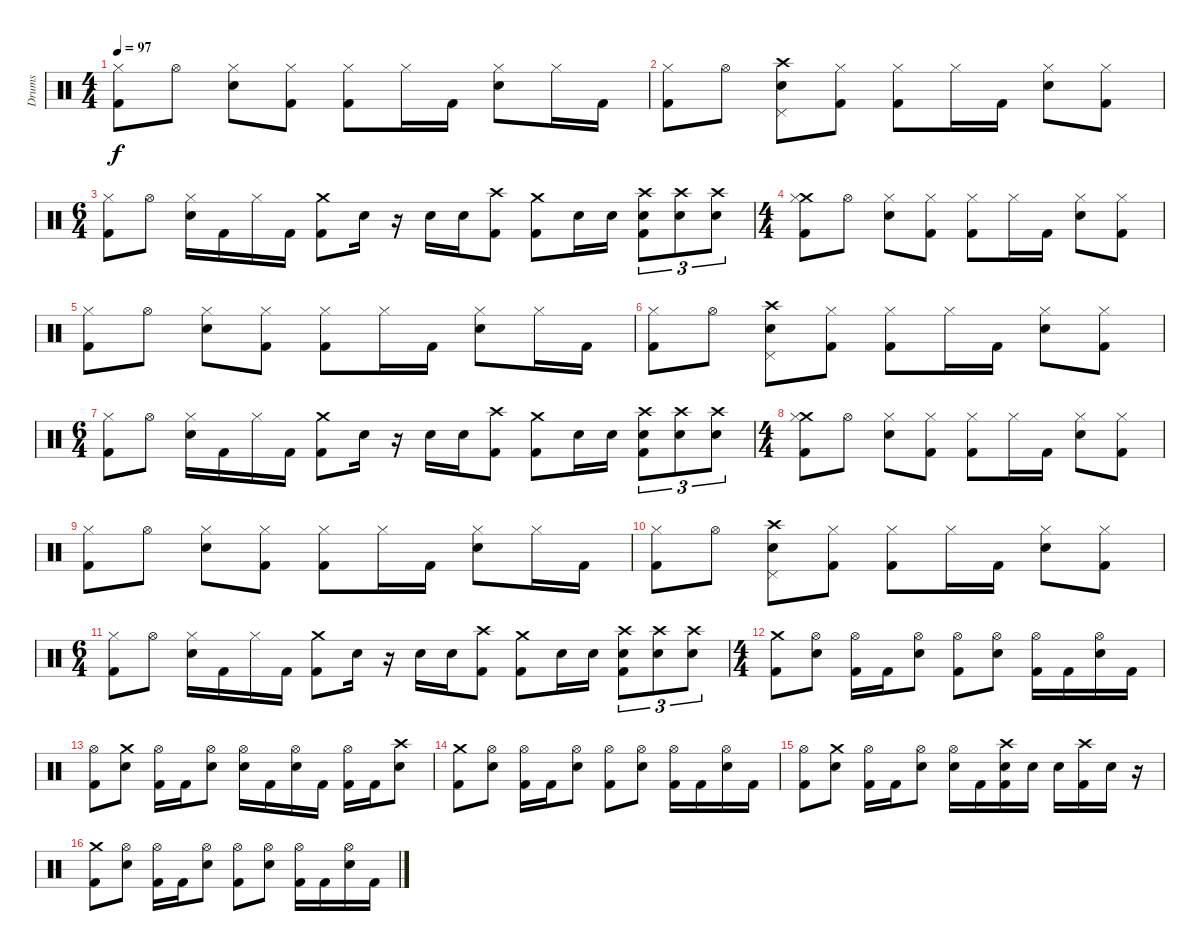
\track ("Drums" "Drums") {instrument percussion}
\staff {score}
\articulation defaults
\ts (4 4)
\tempo 97
\clef neutral
\ks c
("Hi-Hat (closed)" "Kick (hit) 2").8{dy f} "Hi-Hat (open)".8 ("Hi-Hat (closed)" "Snare (hit) 2").8 ("Hi-Hat (closed)" "Kick (hit) 2").8 ("Hi-Hat (closed)" "Kick (hit) 2").8 "Hi-Hat (closed)".16 "Kick (hit) 2".16 ("Hi-Hat (closed)" "Snare (hit) 2").8 "Hi-Hat (closed)".16 "Kick (hit) 2".16 |
("Hi-Hat (closed)" "Kick (hit) 2").8 "Hi-Hat (open)".8 ("Crash high (hit)" "Pedal Hi-Hat (hit)" "Snare (hit) 2").8 ("Hi-Hat (closed)" "Kick (hit) 2").8 ("Hi-Hat (closed)" "Kick (hit) 2").8 "Hi-Hat (closed)".16 "Kick (hit) 2".16 ("Hi-Hat (closed)" "Snare (hit) 2").8 ("Hi-Hat (closed)" "Kick (hit) 2").8 |
\ts (6 4)
("Hi-Hat (closed)" "Kick (hit) 2").8 "Hi-Hat (open)".8 ("Hi-Hat (closed)" "Snare (hit) 2").16 "Kick (hit) 2".16 "Hi-Hat (closed)".16 "Kick (hit) 2".16 ("Crash medium (hit)" "Kick (hit) 2").8 "Snare (hit) 2".16 r.16 "Snare (hit) 2".16 "Snare (hit) 2".16 ("Crash high (hit)" "Kick (hit) 2").8 ("Crash medium (hit)" "Kick (hit) 2").8 "Snare (hit) 2".16 "Snare (hit) 2".16 ("Crash high (hit)" "Snare (hit) 2" "Kick (hit) 2").8{tu (3 2)} ("Crash high (hit)" "Snare (hit) 2").8{tu (3 2)} ("Crash high (hit)" "Snare (hit) 2").8{tu (3 2)} |
\ts (4 4)
("Crash medium (hit)" "Hi-Hat (closed)" "Kick (hit) 2").8 "Hi-Hat (open)".8 ("Hi-Hat (closed)" "Snare (hit) 2").8 ("Hi-Hat (closed)" "Kick (hit) 2").8 ("Hi-Hat (closed)" "Kick (hit) 2").8 "Hi-Hat (closed)".16 "Kick (hit) 2".16 ("Hi-Hat (closed)" "Snare (hit) 2").8 ("Hi-Hat (closed)" "Kick (hit) 2").8 |
("Hi-Hat (closed)" "Kick (hit) 2").8 "Hi-Hat (open)".8 ("Hi-Hat (closed)" "Snare (hit) 2").8 ("Hi-Hat (closed)" "Kick (hit) 2").8 ("Hi-Hat (closed)" "Kick (hit) 2").8 "Hi-Hat (closed)".16 "Kick (hit) 2".16 ("Hi-Hat (closed)" "Snare (hit) 2").8 "Hi-Hat (closed)".16 "Kick (hit) 2".16 |
("Hi-Hat (closed)" "Kick (hit) 2").8 "Hi-Hat (open)".8 ("Crash high (hit)" "Pedal Hi-Hat (hit)" "Snare (hit) 2").8 ("Hi-Hat (closed)" "Kick (hit) 2").8 ("Hi-Hat (closed)" "Kick (hit) 2").8 "Hi-Hat (closed)".16 "Kick (hit) 2".16 ("Hi-Hat (closed)" "Snare (hit) 2").8 ("Hi-Hat (closed)" "Kick (hit) 2").8 |
\ts (6 4)
("Hi-Hat (closed)" "Kick (hit) 2").8 "Hi-Hat (open)".8 ("Hi-Hat (closed)" "Snare (hit) 2").16 "Kick (hit) 2".16 "Hi-Hat (closed)".16 "Kick (hit) 2".16 ("Crash medium (hit)" "Kick (hit) 2").8 "Snare (hit) 2".16 r.16 "Snare (hit) 2".16 "Snare (hit) 2".16 ("Crash high (hit)" "Kick (hit) 2").8 ("Crash medium (hit)" "Kick (hit) 2").8 "Snare (hit) 2".16 "Snare (hit) 2".16 ("Crash high (hit)" "Snare (hit) 2" "Kick (hit) 2").8{tu (3 2)} ("Crash high (hit)" "Snare (hit) 2").8{tu (3 2)} ("Crash high (hit)" "Snare (hit) 2").8{tu (3 2)} |
\ts (4 4)
("Crash medium (hit)" "Hi-Hat (closed)" "Kick (hit) 2").8 "Hi-Hat (open)".8 ("Hi-Hat (closed)" "Snare (hit) 2").8 ("Hi-Hat (closed)" "Kick (hit) 2").8 ("Hi-Hat (closed)" "Kick (hit) 2").8 "Hi-Hat (closed)".16 "Kick (hit) 2".16 ("Hi-Hat (closed)" "Snare (hit) 2").8 ("Hi-Hat (closed)" "Kick (hit) 2").8 |
("Hi-Hat (closed)" "Kick (hit) 2").8 "Hi-Hat (open)".8 ("Hi-Hat (closed)" "Snare (hit) 2").8 ("Hi-Hat (closed)" "Kick (hit) 2").8 ("Hi-Hat (closed)" "Kick (hit) 2").8 "Hi-Hat (closed)".16 "Kick (hit) 2".16 ("Hi-Hat (closed)" "Snare (hit) 2").8 "Hi-Hat (closed)".16 "Kick (hit) 2".16 |
("Hi-Hat (closed)" "Kick (hit) 2").8 "Hi-Hat (open)".8 ("Crash high (hit)" "Pedal Hi-Hat (hit)" "Snare (hit) 2").8 ("Hi-Hat (closed)" "Kick (hit) 2").8 ("Hi-Hat (closed)" "Kick (hit) 2").8 "Hi-Hat (closed)".16 "Kick (hit) 2".16 ("Hi-Hat (closed)" "Snare (hit) 2").8 ("Hi-Hat (closed)" "Kick (hit) 2").8 |
\ts (6 4)
("Hi-Hat (closed)" "Kick (hit) 2").8 "Hi-Hat (open)".8 ("Hi-Hat (closed)" "Snare (hit) 2").16 "Kick (hit) 2".16 "Hi-Hat (closed)".16 "Kick (hit) 2".16 ("Crash medium (hit)" "Kick (hit) 2").8 "Snare (hit) 2".16 r.16 "Snare (hit) 2".16 "Snare (hit) 2".16 ("Crash high (hit)" "Kick (hit) 2").8 ("Crash medium (hit)" "Kick (hit) 2").8 "Snare (hit) 2".16 "Snare (hit) 2".16 ("Crash high (hit)" "Snare (hit) 2" "Kick (hit) 2").8{tu (3 2)} ("Crash high (hit)" "Snare (hit) 2").8{tu (3 2)} ("Crash high (hit)" "Snare (hit) 2").8{tu (3 2)} |
\ts (4 4)
("Crash medium (hit)" "Kick (hit) 2").8 ("Hi-Hat (open)" "Snare (hit) 2").8 ("Hi-Hat (open)" "Kick (hit) 2").16 "Kick (hit) 2".16 ("Hi-Hat (open)" "Snare (hit) 2").8 ("Hi-Hat (open)" "Kick (hit) 2").8 ("Hi-Hat (open)" "Snare (hit) 2").8 ("Hi-Hat (open)" "Kick (hit) 2").16 "Kick (hit) 2".16 ("Hi-Hat (open)" "Snare (hit) 2").16 "Kick (hit) 2".16 |
("Hi-Hat (open)" "Kick (hit) 2").8 ("Crash medium (hit)" "Snare (hit) 2").8 ("Hi-Hat (open)" "Kick (hit) 2").16 "Kick (hit) 2".16 ("Hi-Hat (open)" "Snare (hit) 2").8 ("Hi-Hat (open)" "Snare (hit) 2").16 "Kick (hit) 2".16 ("Hi-Hat (open)" "Snare (hit) 2").16 "Kick (hit) 2".16 ("Hi-Hat (open)" "Kick (hit) 2").16 "Kick (hit) 2".16 ("Crash high (hit)" "Snare (hit) 2").8 |
("Crash medium (hit)" "Kick (hit) 2").8 ("Hi-Hat (open)" "Snare (hit) 2").8 ("Hi-Hat (open)" "Kick (hit) 2").16 "Kick (hit) 2".16 ("Hi-Hat (open)" "Snare (hit) 2").8 ("Hi-Hat (open)" "Kick (hit) 2").8 ("Hi-Hat (open)" "Snare (hit) 2").8 ("Hi-Hat (open)" "Kick (hit) 2").16 "Kick (hit) 2".16 ("Hi-Hat (open)" "Snare (hit) 2").16 "Kick (hit) 2".16 |
("Hi-Hat (open)" "Kick (hit) 2").8 ("Crash medium (hit)" "Snare (hit) 2").8 ("Hi-Hat (open)" "Kick (hit) 2").16 "Kick (hit) 2".16 ("Hi-Hat (open)" "Snare (hit) 2").8 ("Hi-Hat (open)" "Snare (hit) 2").16 "Kick (hit) 2".16 ("Crash high (hit)" "Snare (hit) 2" "Kick (hit) 2").16 "Snare (hit) 2".16 "Snare (hit) 2".16 ("Crash high (hit)" "Kick (hit) 2").16 "Snare (hit) 2".16 r.16 |
("Crash medium (hit)" "Kick (hit) 2").8 ("Hi-Hat (open)" "Snare (hit) 2").8 ("Hi-Hat (open)" "Kick (hit) 2").16 "Kick (hit) 2".16 ("Hi-Hat (open)" "Snare (hit) 2").8 ("Hi-Hat (open)" "Kick (hit) 2").8 ("Hi-Hat (open)" "Snare (hit) 2").8 ("Hi-Hat (open)" "Kick (hit) 2").16 "Kick (hit) 2".16 ("Hi-Hat (open)" "Snare (hit) 2").16 "Kick (hit) 2".16
